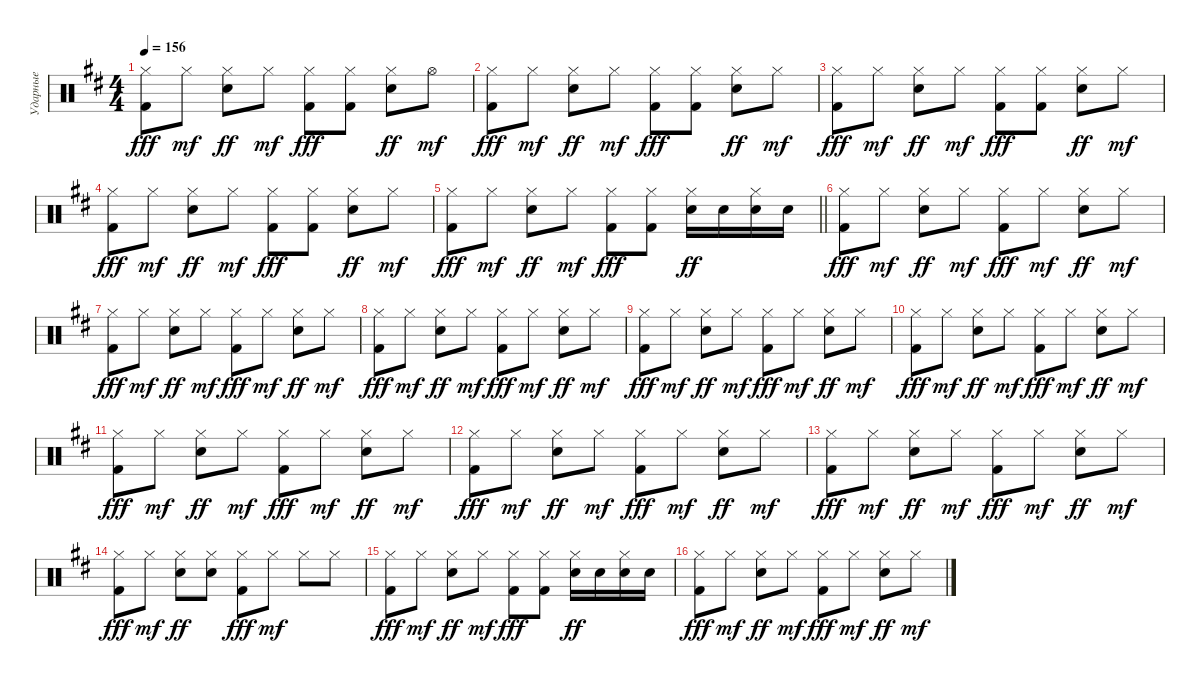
\track ("Ударные" "Ударные") {instrument percussion}
\staff {score}
\articulation defaults
\ts (4 4)
\tempo 156
\clef neutral
\ks bminor
("Hi-Hat (closed)" "Kick (hit) 2").8{dy fff} "Hi-Hat (closed)".8{dy mf} ("Hi-Hat (closed)" "Electric Snare (hit)").8{dy ff} "Hi-Hat (closed)".8{dy mf} ("Hi-Hat (closed)" "Kick (hit) 2").8{dy fff} ("Hi-Hat (closed)" "Kick (hit) 2").8 ("Hi-Hat (closed)" "Electric Snare (hit)").8{dy ff} "Hi-Hat (open)".8{dy mf} |
("Hi-Hat (closed)" "Kick (hit) 2").8{dy fff} "Hi-Hat (closed)".8{dy mf} ("Hi-Hat (closed)" "Electric Snare (hit)").8{dy ff} "Hi-Hat (closed)".8{dy mf} ("Hi-Hat (closed)" "Kick (hit) 2").8{dy fff} ("Hi-Hat (closed)" "Kick (hit) 2").8 ("Hi-Hat (closed)" "Electric Snare (hit)").8{dy ff} "Hi-Hat (closed)".8{dy mf} |
("Hi-Hat (closed)" "Kick (hit) 2").8{dy fff} "Hi-Hat (closed)".8{dy mf} ("Hi-Hat (closed)" "Electric Snare (hit)").8{dy ff} "Hi-Hat (closed)".8{dy mf} ("Hi-Hat (closed)" "Kick (hit) 2").8{dy fff} ("Hi-Hat (closed)" "Kick (hit) 2").8 ("Hi-Hat (closed)" "Electric Snare (hit)").8{dy ff} "Hi-Hat (closed)".8{dy mf} |
("Hi-Hat (closed)" "Kick (hit) 2").8{dy fff} "Hi-Hat (closed)".8{dy mf} ("Hi-Hat (closed)" "Electric Snare (hit)").8{dy ff} "Hi-Hat (closed)".8{dy mf} ("Hi-Hat (closed)" "Kick (hit) 2").8{dy fff} ("Hi-Hat (closed)" "Kick (hit) 2").8 ("Hi-Hat (closed)" "Electric Snare (hit)").8{dy ff} "Hi-Hat (closed)".8{dy mf} |
\barLineRight lightlight
("Hi-Hat (closed)" "Kick (hit) 2").8{dy fff} "Hi-Hat (closed)".8{dy mf} ("Hi-Hat (closed)" "Electric Snare (hit)").8{dy ff} "Hi-Hat (closed)".8{dy mf} ("Hi-Hat (closed)" "Kick (hit) 2").8{dy fff} ("Hi-Hat (closed)" "Kick (hit) 2").8 ("Hi-Hat (closed)" "Electric Snare (hit)").16{dy ff} "Electric Snare (hit)".16 ("Hi-Hat (closed)" "Electric Snare (hit)").16 "Electric Snare (hit)".16 |
("Hi-Hat (closed)" "Kick (hit) 2").8{dy fff} "Hi-Hat (closed)".8{dy mf} ("Hi-Hat (closed)" "Electric Snare (hit)").8{dy ff} "Hi-Hat (closed)".8{dy mf} ("Hi-Hat (closed)" "Kick (hit) 2").8{dy fff} "Hi-Hat (closed)".8{dy mf} ("Hi-Hat (closed)" "Electric Snare (hit)").8{dy ff} "Hi-Hat (closed)".8{dy mf} |
("Hi-Hat (closed)" "Kick (hit) 2").8{dy fff} "Hi-Hat (closed)".8{dy mf} ("Hi-Hat (closed)" "Electric Snare (hit)").8{dy ff} "Hi-Hat (closed)".8{dy mf} ("Hi-Hat (closed)" "Kick (hit) 2").8{dy fff} "Hi-Hat (closed)".8{dy mf} ("Hi-Hat (closed)" "Electric Snare (hit)").8{dy ff} "Hi-Hat (closed)".8{dy mf} |
("Hi-Hat (closed)" "Kick (hit) 2").8{dy fff} "Hi-Hat (closed)".8{dy mf} ("Hi-Hat (closed)" "Electric Snare (hit)").8{dy ff} "Hi-Hat (closed)".8{dy mf} ("Hi-Hat (closed)" "Kick (hit) 2").8{dy fff} "Hi-Hat (closed)".8{dy mf} ("Hi-Hat (closed)" "Electric Snare (hit)").8{dy ff} "Hi-Hat (closed)".8{dy mf} |
("Hi-Hat (closed)" "Kick (hit) 2").8{dy fff} "Hi-Hat (closed)".8{dy mf} ("Hi-Hat (closed)" "Electric Snare (hit)").8{dy ff} "Hi-Hat (closed)".8{dy mf} ("Hi-Hat (closed)" "Kick (hit) 2").8{dy fff} "Hi-Hat (closed)".8{dy mf} ("Hi-Hat (closed)" "Electric Snare (hit)").8{dy ff} "Hi-Hat (closed)".8{dy mf} |
("Hi-Hat (closed)" "Kick (hit) 2").8{dy fff} "Hi-Hat (closed)".8{dy mf} ("Hi-Hat (closed)" "Electric Snare (hit)").8{dy ff} "Hi-Hat (closed)".8{dy mf} ("Hi-Hat (closed)" "Kick (hit) 2").8{dy fff} "Hi-Hat (closed)".8{dy mf} ("Hi-Hat (closed)" "Electric Snare (hit)").8{dy ff} "Hi-Hat (closed)".8{dy mf} |
("Hi-Hat (closed)" "Kick (hit) 2").8{dy fff} "Hi-Hat (closed)".8{dy mf} ("Hi-Hat (closed)" "Electric Snare (hit)").8{dy ff} "Hi-Hat (closed)".8{dy mf} ("Hi-Hat (closed)" "Kick (hit) 2").8{dy fff} "Hi-Hat (closed)".8{dy mf} ("Hi-Hat (closed)" "Electric Snare (hit)").8{dy ff} "Hi-Hat (closed)".8{dy mf} |
("Hi-Hat (closed)" "Kick (hit) 2").8{dy fff} "Hi-Hat (closed)".8{dy mf} ("Hi-Hat (closed)" "Electric Snare (hit)").8{dy ff} "Hi-Hat (closed)".8{dy mf} ("Hi-Hat (closed)" "Kick (hit) 2").8{dy fff} "Hi-Hat (closed)".8{dy mf} ("Hi-Hat (closed)" "Electric Snare (hit)").8{dy ff} "Hi-Hat (closed)".8{dy mf} |
("Hi-Hat (closed)" "Kick (hit) 2").8{dy fff} "Hi-Hat (closed)".8{dy mf} ("Hi-Hat (closed)" "Electric Snare (hit)").8{dy ff} "Hi-Hat (closed)".8{dy mf} ("Hi-Hat (closed)" "Kick (hit) 2").8{dy fff} "Hi-Hat (closed)".8{dy mf} ("Hi-Hat (closed)" "Electric Snare (hit)").8{dy ff} "Hi-Hat (closed)".8{dy mf} |
("Hi-Hat (closed)" "Kick (hit) 2").8{dy fff} "Hi-Hat (closed)".8{dy mf} ("Hi-Hat (closed)" "Electric Snare (hit)").8{dy ff} ("Hi-Hat (closed)" "Electric Snare (hit)").8 ("Hi-Hat (closed)" "Kick (hit) 2").8{dy fff} "Hi-Hat (closed)".8{dy mf} "Hi-Hat (closed)".8 "Hi-Hat (closed)".8 |
("Hi-Hat (closed)" "Kick (hit) 2").8{dy fff} "Hi-Hat (closed)".8{dy mf} ("Hi-Hat (closed)" "Electric Snare (hit)").8{dy ff} "Hi-Hat (closed)".8{dy mf} ("Hi-Hat (closed)" "Kick (hit) 2").8{dy fff} ("Hi-Hat (closed)" "Kick (hit) 2").8 ("Hi-Hat (closed)" "Electric Snare (hit)").16{dy ff} "Electric Snare (hit)".16 ("Hi-Hat (closed)" "Electric Snare (hit)").16 "Electric Snare (hit)".16 |
("Hi-Hat (closed)" "Kick (hit) 2").8{dy fff} "Hi-Hat (closed)".8{dy mf} ("Hi-Hat (closed)" "Electric Snare (hit)").8{dy ff} "Hi-Hat (closed)".8{dy mf} ("Hi-Hat (closed)" "Kick (hit) 2").8{dy fff} "Hi-Hat (closed)".8{dy mf} ("Hi-Hat (closed)" "Electric Snare (hit)").8{dy ff} "Hi-Hat (closed)".8{dy mf}
